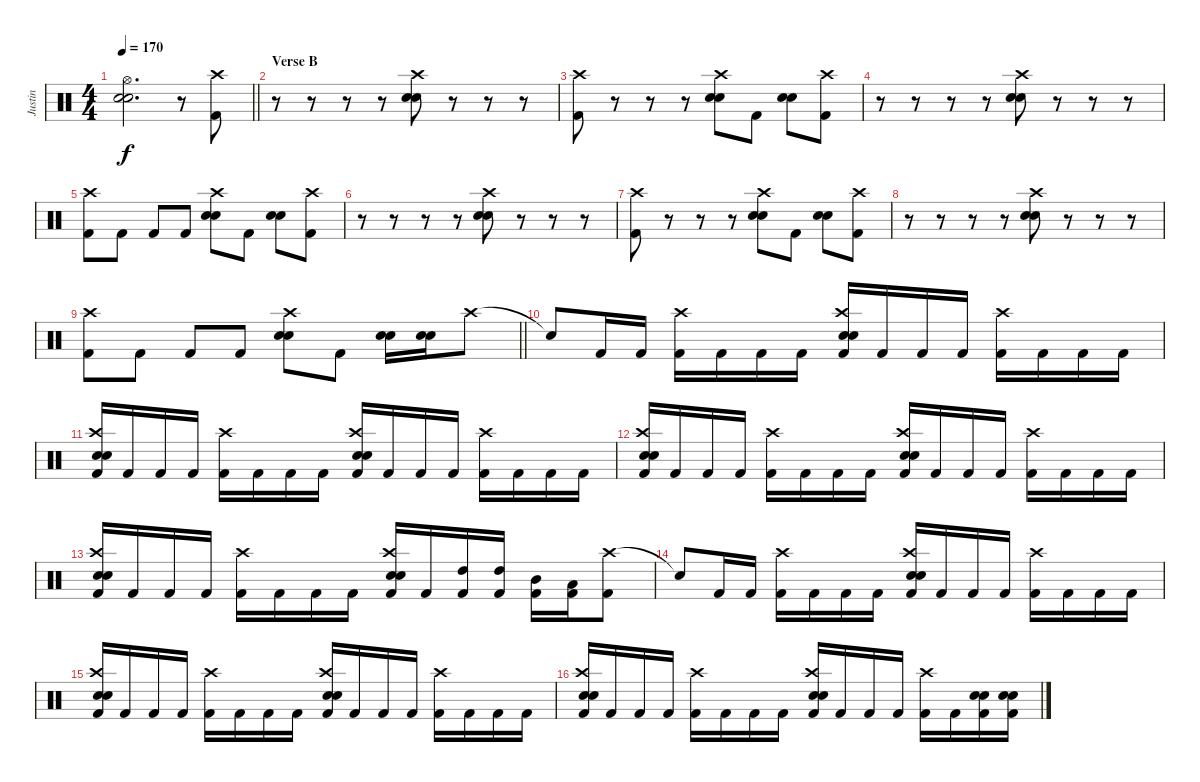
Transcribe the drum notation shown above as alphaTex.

\track ("Justin" "Justin") {instrument percussion}
\staff {score}
\articulation defaults
\ts (4 4)
\tempo 170
\clef neutral
\barLineRight lightlight
\ks c
("Hi-Hat (open)" "Electric Snare (hit)" "Snare (hit) 2").2{d dy f} r.8 ("Crash high (hit)" "Kick (hit) 2").8 |
\section ("" "Verse B")
r.8 r.8 r.8 r.8 ("Crash high (hit)" "Electric Snare (hit)" "Snare (hit) 2").8 r.8 r.8 r.8 |
("Crash high (hit)" "Kick (hit) 2").8 r.8 r.8 r.8 ("Crash high (hit)" "Electric Snare (hit)" "Snare (hit) 2").8 "Kick (hit) 2".8 ("Electric Snare (hit)" "Snare (hit) 2").8 ("Crash high (hit)" "Kick (hit) 2").8 |
r.8 r.8 r.8 r.8 ("Crash high (hit)" "Electric Snare (hit)" "Snare (hit) 2").8 r.8 r.8 r.8 |
("Crash high (hit)" "Kick (hit) 2").8 "Kick (hit) 2".8 "Kick (hit) 2".8 "Kick (hit) 2".8 ("Crash high (hit)" "Electric Snare (hit)" "Snare (hit) 2").8 "Kick (hit) 2".8 ("Electric Snare (hit)" "Snare (hit) 2").8 ("Crash high (hit)" "Kick (hit) 2").8 |
r.8 r.8 r.8 r.8 ("Crash high (hit)" "Electric Snare (hit)" "Snare (hit) 2").8 r.8 r.8 r.8 |
("Crash high (hit)" "Kick (hit) 2").8 r.8 r.8 r.8 ("Crash high (hit)" "Electric Snare (hit)" "Snare (hit) 2").8 "Kick (hit) 2".8 ("Electric Snare (hit)" "Snare (hit) 2").8 ("Crash high (hit)" "Kick (hit) 2").8 |
r.8 r.8 r.8 r.8 ("Crash high (hit)" "Electric Snare (hit)" "Snare (hit) 2").8 r.8 r.8 r.8 |
\barLineRight lightlight
("Crash high (hit)" "Kick (hit) 2").8 "Kick (hit) 2".8 "Kick (hit) 2".8 "Kick (hit) 2".8 ("Crash high (hit)" "Electric Snare (hit)" "Snare (hit) 2").8 "Kick (hit) 2".8 ("Electric Snare (hit)" "Snare (hit) 2").16 ("Electric Snare (hit)" "Snare (hit) 2").16 "Crash high (hit)".8 |
"Snare (hit)"{t}.8 "Kick (hit) 2".16 "Kick (hit) 2".16 ("Crash high (hit)" "Kick (hit) 2").16 "Kick (hit) 2".16 "Kick (hit) 2".16 "Kick (hit) 2".16 ("Crash high (hit)" "Electric Snare (hit)" "Snare (hit) 2" "Kick (hit) 2").16 "Kick (hit) 2".16 "Kick (hit) 2".16 "Kick (hit) 2".16 ("Crash high (hit)" "Kick (hit) 2").16 "Kick (hit) 2".16 "Kick (hit) 2".16 "Kick (hit) 2".16 |
("Crash high (hit)" "Electric Snare (hit)" "Snare (hit) 2" "Kick (hit) 2").16 "Kick (hit) 2".16 "Kick (hit) 2".16 "Kick (hit) 2".16 ("Crash high (hit)" "Kick (hit) 2").16 "Kick (hit) 2".16 "Kick (hit) 2".16 "Kick (hit) 2".16 ("Crash high (hit)" "Electric Snare (hit)" "Snare (hit) 2" "Kick (hit) 2").16 "Kick (hit) 2".16 "Kick (hit) 2".16 "Kick (hit) 2".16 ("Crash high (hit)" "Kick (hit) 2").16 "Kick (hit) 2".16 "Kick (hit) 2".16 "Kick (hit) 2".16 |
("Crash high (hit)" "Electric Snare (hit)" "Snare (hit) 2" "Kick (hit) 2").16 "Kick (hit) 2".16 "Kick (hit) 2".16 "Kick (hit) 2".16 ("Crash high (hit)" "Kick (hit) 2").16 "Kick (hit) 2".16 "Kick (hit) 2".16 "Kick (hit) 2".16 ("Crash high (hit)" "Electric Snare (hit)" "Snare (hit) 2" "Kick (hit) 2").16 "Kick (hit) 2".16 "Kick (hit) 2".16 "Kick (hit) 2".16 ("Crash high (hit)" "Kick (hit) 2").16 "Kick (hit) 2".16 "Kick (hit) 2".16 "Kick (hit) 2".16 |
("Crash high (hit)" "Electric Snare (hit)" "Snare (hit) 2" "Kick (hit) 2").16 "Kick (hit) 2".16 "Kick (hit) 2".16 "Kick (hit) 2".16 ("Crash high (hit)" "Kick (hit) 2").16 "Kick (hit) 2".16 "Kick (hit) 2".16 "Kick (hit) 2".16 ("Crash high (hit)" "Electric Snare (hit)" "Snare (hit) 2" "Kick (hit) 2").16 "Kick (hit) 2".16 ("High Tom (hit)" "Kick (hit) 2").16 ("High Tom (hit)" "Kick (hit) 2").16 ("Mid Tom (hit)" "Kick (hit) 2").16 ("Low Tom (hit)" "Kick (hit) 2").16 ("Crash high (hit)" "Kick (hit) 2").8 |
"Snare (hit)"{t}.8 "Kick (hit) 2".16 "Kick (hit) 2".16 ("Crash high (hit)" "Kick (hit) 2").16 "Kick (hit) 2".16 "Kick (hit) 2".16 "Kick (hit) 2".16 ("Crash high (hit)" "Electric Snare (hit)" "Snare (hit) 2" "Kick (hit) 2").16 "Kick (hit) 2".16 "Kick (hit) 2".16 "Kick (hit) 2".16 ("Crash high (hit)" "Kick (hit) 2").16 "Kick (hit) 2".16 "Kick (hit) 2".16 "Kick (hit) 2".16 |
("Crash high (hit)" "Electric Snare (hit)" "Snare (hit) 2" "Kick (hit) 2").16 "Kick (hit) 2".16 "Kick (hit) 2".16 "Kick (hit) 2".16 ("Crash high (hit)" "Kick (hit) 2").16 "Kick (hit) 2".16 "Kick (hit) 2".16 "Kick (hit) 2".16 ("Crash high (hit)" "Electric Snare (hit)" "Snare (hit) 2" "Kick (hit) 2").16 "Kick (hit) 2".16 "Kick (hit) 2".16 "Kick (hit) 2".16 ("Crash high (hit)" "Kick (hit) 2").16 "Kick (hit) 2".16 "Kick (hit) 2".16 "Kick (hit) 2".16 |
("Crash high (hit)" "Electric Snare (hit)" "Snare (hit) 2" "Kick (hit) 2").16 "Kick (hit) 2".16 "Kick (hit) 2".16 "Kick (hit) 2".16 ("Crash high (hit)" "Kick (hit) 2").16 "Kick (hit) 2".16 "Kick (hit) 2".16 "Kick (hit) 2".16 ("Crash high (hit)" "Electric Snare (hit)" "Snare (hit) 2" "Kick (hit) 2").16 "Kick (hit) 2".16 "Kick (hit) 2".16 "Kick (hit) 2".16 ("Crash high (hit)" "Kick (hit) 2").16 "Kick (hit) 2".16 ("Electric Snare (hit)" "Snare (hit) 2" "Kick (hit) 2").16 ("Electric Snare (hit)" "Snare (hit) 2" "Kick (hit) 2").16
